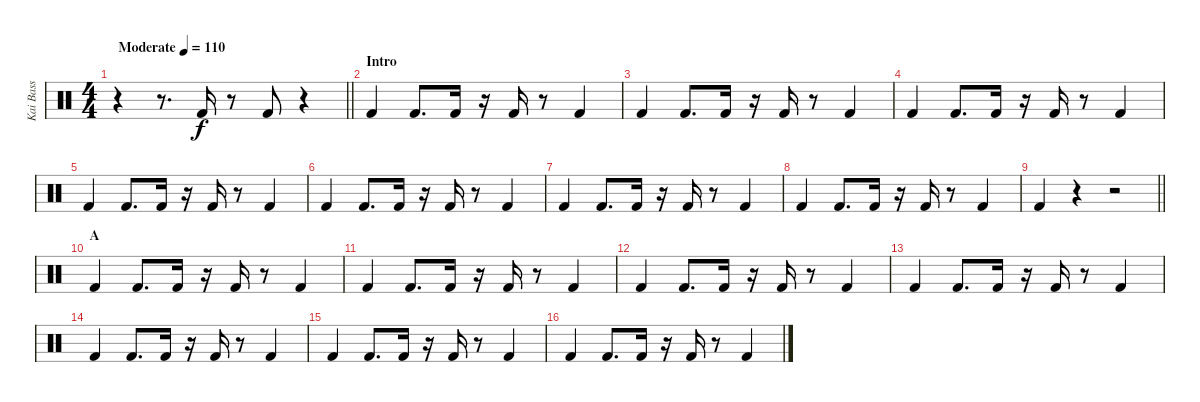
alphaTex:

\track ("Kai Bass" "Kai Bass") {instrument percussion}
\staff {score}
\articulation defaults
\ts (4 4)
\tempo (110 "Moderate")
\clef neutral
\barLineRight lightlight
\ks c
r.4{dy f} r.8{d} "Kick (hit) 2".16 r.8 "Kick (hit) 2".8 r.4 |
\section ("" "Intro")
"Kick (hit) 2".4 "Kick (hit) 2".8{d} "Kick (hit) 2".16 r.16 "Kick (hit) 2".16 r.8 "Kick (hit) 2".4 |
"Kick (hit) 2".4 "Kick (hit) 2".8{d} "Kick (hit) 2".16 r.16 "Kick (hit) 2".16 r.8 "Kick (hit) 2".4 |
"Kick (hit) 2".4 "Kick (hit) 2".8{d} "Kick (hit) 2".16 r.16 "Kick (hit) 2".16 r.8 "Kick (hit) 2".4 |
"Kick (hit) 2".4 "Kick (hit) 2".8{d} "Kick (hit) 2".16 r.16 "Kick (hit) 2".16 r.8 "Kick (hit) 2".4 |
"Kick (hit) 2".4 "Kick (hit) 2".8{d} "Kick (hit) 2".16 r.16 "Kick (hit) 2".16 r.8 "Kick (hit) 2".4 |
"Kick (hit) 2".4 "Kick (hit) 2".8{d} "Kick (hit) 2".16 r.16 "Kick (hit) 2".16 r.8 "Kick (hit) 2".4 |
"Kick (hit) 2".4 "Kick (hit) 2".8{d} "Kick (hit) 2".16 r.16 "Kick (hit) 2".16 r.8 "Kick (hit) 2".4 |
\barLineRight lightlight "Kick (hit) 2".4
r.4 r.2 |
\section ("" "A")
"Kick (hit) 2".4 "Kick (hit) 2".8{d} "Kick (hit) 2".16 r.16 "Kick (hit) 2".16 r.8 "Kick (hit) 2".4 |
"Kick (hit) 2".4 "Kick (hit) 2".8{d} "Kick (hit) 2".16 r.16 "Kick (hit) 2".16 r.8 "Kick (hit) 2".4 |
"Kick (hit) 2".4 "Kick (hit) 2".8{d} "Kick (hit) 2".16 r.16 "Kick (hit) 2".16 r.8 "Kick (hit) 2".4 |
"Kick (hit) 2".4 "Kick (hit) 2".8{d} "Kick (hit) 2".16 r.16 "Kick (hit) 2".16 r.8 "Kick (hit) 2".4 |
"Kick (hit) 2".4 "Kick (hit) 2".8{d} "Kick (hit) 2".16 r.16 "Kick (hit) 2".16 r.8 "Kick (hit) 2".4 |
"Kick (hit) 2".4 "Kick (hit) 2".8{d} "Kick (hit) 2".16 r.16 "Kick (hit) 2".16 r.8 "Kick (hit) 2".4 |
"Kick (hit) 2".4 "Kick (hit) 2".8{d} "Kick (hit) 2".16 r.16 "Kick (hit) 2".16 r.8 "Kick (hit) 2".4
